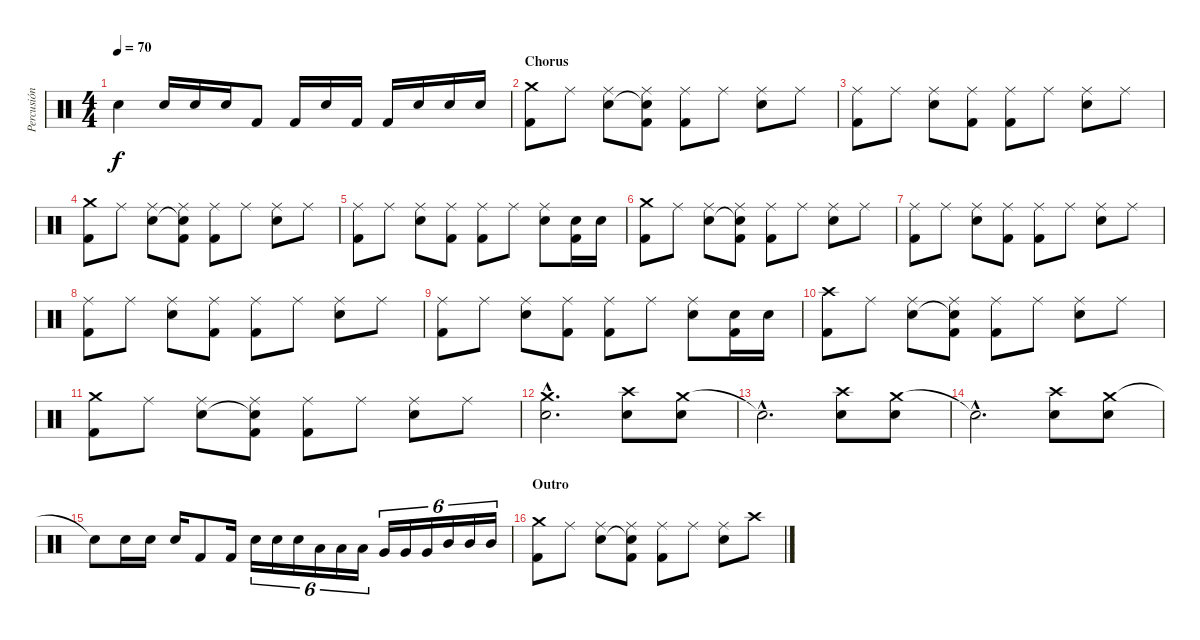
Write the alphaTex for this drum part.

\track ("Percusión" "Percusión") {instrument percussion}
\staff {score}
\articulation defaults
\ts (4 4)
\tempo 70
\clef neutral
\ks c "Snare (hit)"{t}.4{dy f} "Snare (hit) 2".16 "Snare (hit) 2".16 "Snare (hit) 2".16 "Kick (hit) 2".8 "Kick (hit) 2".16 "Snare (hit) 2".16 "Kick (hit) 2".16 "Kick (hit) 2".16 "Snare (hit) 2".16 "Snare (hit) 2".16 "Snare (hit) 2".16
|
\section ("" "Chorus")
("Crash medium (hit)" "Kick (hit) 2").8 "Ride (middle)".8 ("Ride (middle)" "Snare (hit) 2").8 ("Ride (middle)" "Snare (hit)"{t} "Kick (hit) 2").8 ("Ride (middle)" "Kick (hit) 2").8 "Ride (middle)".8 ("Ride (middle)" "Snare (hit) 2").8 "Ride (middle)".8 |
("Ride (middle)" "Kick (hit) 2").8 "Ride (middle)".8 ("Ride (middle)" "Snare (hit) 2").8 ("Ride (middle)" "Kick (hit) 2").8 ("Ride (middle)" "Kick (hit) 2").8 "Ride (middle)".8 ("Ride (middle)" "Snare (hit) 2").8 "Ride (middle)".8 |
("Crash medium (hit)" "Kick (hit) 2").8 "Ride (middle)".8 ("Ride (middle)" "Snare (hit) 2").8 ("Ride (middle)" "Snare (hit)"{t} "Kick (hit) 2").8 ("Ride (middle)" "Kick (hit) 2").8 "Ride (middle)".8 ("Ride (middle)" "Snare (hit) 2").8 "Ride (middle)".8 |
("Ride (middle)" "Kick (hit) 2").8 "Ride (middle)".8 ("Ride (middle)" "Snare (hit) 2").8 ("Ride (middle)" "Kick (hit) 2").8 ("Ride (middle)" "Kick (hit) 2").8 "Ride (middle)".8 ("Ride (middle)" "Snare (hit) 2").8 ("Snare (hit) 2" "Kick (hit) 2").16 "Snare (hit) 2".16 |
("Crash medium (hit)" "Kick (hit) 2").8 "Ride (middle)".8 ("Ride (middle)" "Snare (hit) 2").8 ("Ride (middle)" "Snare (hit)"{t} "Kick (hit) 2").8 ("Ride (middle)" "Kick (hit) 2").8 "Ride (middle)".8 ("Ride (middle)" "Snare (hit) 2").8 "Ride (middle)".8 |
("Ride (middle)" "Kick (hit) 2").8 "Ride (middle)".8 ("Ride (middle)" "Snare (hit) 2").8 ("Ride (middle)" "Kick (hit) 2").8 ("Ride (middle)" "Kick (hit) 2").8 "Ride (middle)".8 ("Ride (middle)" "Snare (hit) 2").8 "Ride (middle)".8 |
("Ride (middle)" "Kick (hit) 2").8 "Ride (middle)".8 ("Ride (middle)" "Snare (hit) 2").8 ("Ride (middle)" "Kick (hit) 2").8 ("Ride (middle)" "Kick (hit) 2").8 "Ride (middle)".8 ("Ride (middle)" "Snare (hit) 2").8 "Ride (middle)".8 |
("Ride (middle)" "Kick (hit) 2").8 "Ride (middle)".8 ("Ride (middle)" "Snare (hit) 2").8 ("Ride (middle)" "Kick (hit) 2").8 ("Ride (middle)" "Kick (hit) 2").8 "Ride (middle)".8 ("Ride (middle)" "Snare (hit) 2").8 ("Snare (hit) 2" "Kick (hit) 2").16 "Snare (hit) 2".16 |
("Crash high (hit)" "Kick (hit) 2").8 "Ride (middle)".8 ("Ride (middle)" "Snare (hit) 2").8 ("Ride (middle)" "Snare (hit)"{t} "Kick (hit) 2").8 ("Ride (middle)" "Kick (hit) 2").8 "Ride (middle)".8 ("Ride (middle)" "Snare (hit) 2").8 "Ride (middle)".8 |
("Crash medium (hit)" "Kick (hit) 2").8 "Ride (middle)".8 ("Ride (middle)" "Snare (hit) 2").8 ("Ride (middle)" "Snare (hit)"{t} "Kick (hit) 2").8 ("Ride (middle)" "Kick (hit) 2").8 "Ride (middle)".8 ("Ride (middle)" "Snare (hit) 2").8 "Ride (middle)".8 |
("Crash medium (hit)"{hac} "Snare (hit) 2"{hac}).2{d} ("Crash high (hit)" "Snare (hit) 2").8 ("Crash medium (hit)" "Snare (hit) 2").8 |
"Snare (hit)"{hac t}.2{d} ("Crash high (hit)" "Snare (hit) 2").8 ("Crash medium (hit)" "Snare (hit) 2").8 |
"Snare (hit)"{hac t}.2{d} ("Crash high (hit)" "Snare (hit) 2").8 ("Crash medium (hit)" "Snare (hit) 2").8 |
"Snare (hit)"{t}.8 "Snare (hit) 2".16 "Snare (hit) 2".16 "Snare (hit) 2".16 "Kick (hit) 2".8 "Kick (hit) 2".16 "Snare (hit) 2".16{tu (6 4)} "Snare (hit) 2".16{tu (6 4)} "Snare (hit) 2".16{tu (6 4)} "Low Tom (hit)".16{tu (6 4)} "Low Tom (hit)".16{tu (6 4)} "Low Tom (hit)".16{tu (6 4)} "Very Low Tom (hit)".16{tu (6 4)} "Very Low Tom (hit)".16{tu (6 4)} "Very Low Tom (hit)".16{tu (6 4)} "Mid Tom (hit)".16{tu (6 4)} "Mid Tom (hit)".16{tu (6 4)} "Mid Tom (hit)".16{tu (6 4)} |
\section ("" "Outro")
("Crash medium (hit)" "Kick (hit) 2").8 "Ride (middle)".8 ("Ride (middle)" "Snare (hit) 2").8 ("Ride (middle)" "Snare (hit)"{t} "Kick (hit) 2").8 ("Ride (middle)" "Kick (hit) 2").8 "Ride (middle)".8 ("Ride (middle)" "Snare (hit) 2").8 "Crash high (hit)".8
